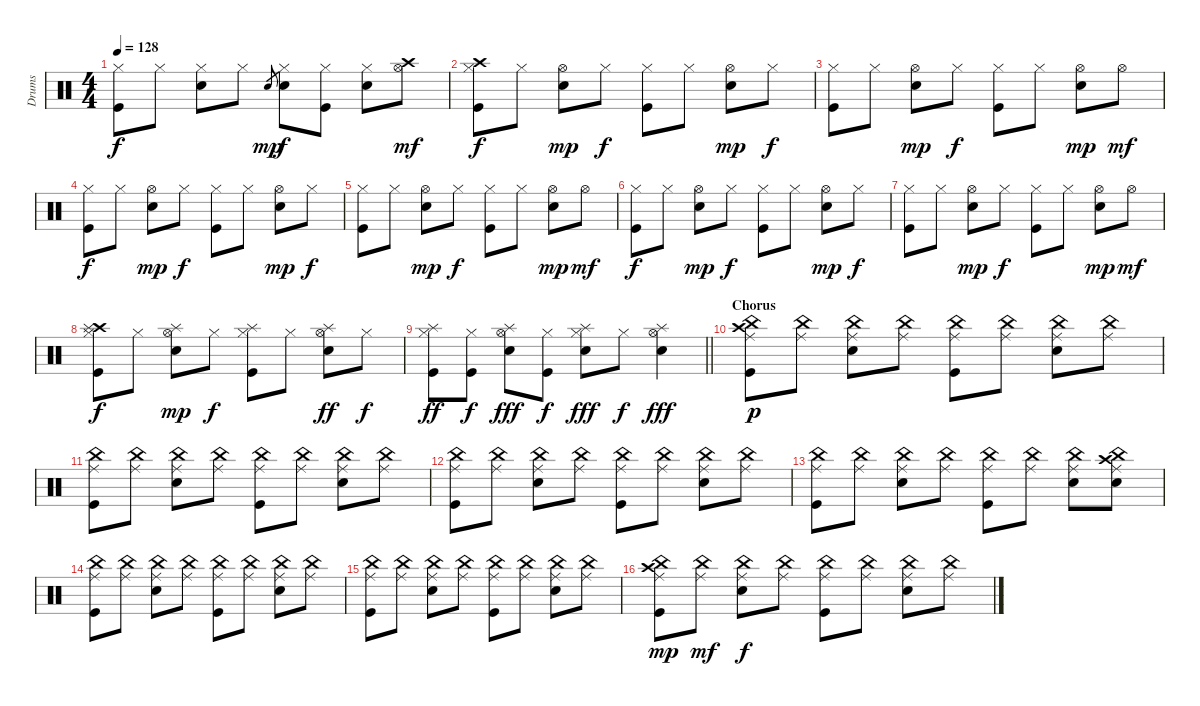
\track ("Drums" "Drums") {instrument percussion}
\staff {score}
\articulation defaults
\ts (4 4)
\tempo 128
\clef neutral
\ks c
("Hi-Hat (closed)" "Kick (hit)").8{dy f} "Hi-Hat (closed)".8 ("Hi-Hat (closed)" "Snare (hit) 2").8 "Hi-Hat (closed)".8 "Electric Snare (hit)".8{gr dy mp} ("Hi-Hat (closed)" "Snare (hit) 2").8{dy f} ("Hi-Hat (closed)" "Kick (hit)").8 ("Hi-Hat (closed)" "Snare (hit) 2").8 ("Crash high (hit)" "Hi-Hat (open)").8{dy mf} |
("Crash high (hit)" "Hi-Hat (closed)" "Kick (hit)").8{dy f} "Hi-Hat (closed)".8 ("Hi-Hat (open)" "Snare (hit) 2").8{dy mp} "Hi-Hat (closed)".8{dy f} ("Hi-Hat (closed)" "Kick (hit)").8 "Hi-Hat (closed)".8 ("Hi-Hat (open)" "Snare (hit) 2").8{dy mp} "Hi-Hat (closed)".8{dy f} |
("Hi-Hat (closed)" "Kick (hit)").8 "Hi-Hat (closed)".8 ("Hi-Hat (open)" "Snare (hit) 2").8{dy mp} "Hi-Hat (closed)".8{dy f} ("Hi-Hat (closed)" "Kick (hit)").8 "Hi-Hat (closed)".8 ("Hi-Hat (open)" "Snare (hit) 2").8{dy mp} "Hi-Hat (open)".8{dy mf} |
("Hi-Hat (closed)" "Kick (hit)").8{dy f} "Hi-Hat (closed)".8 ("Hi-Hat (open)" "Snare (hit) 2").8{dy mp} "Hi-Hat (closed)".8{dy f} ("Hi-Hat (closed)" "Kick (hit)").8 "Hi-Hat (closed)".8 ("Hi-Hat (open)" "Snare (hit) 2").8{dy mp} "Hi-Hat (closed)".8{dy f} |
("Hi-Hat (closed)" "Kick (hit)").8 "Hi-Hat (closed)".8 ("Hi-Hat (open)" "Snare (hit) 2").8{dy mp} "Hi-Hat (closed)".8{dy f} ("Hi-Hat (closed)" "Kick (hit)").8 "Hi-Hat (closed)".8 ("Hi-Hat (open)" "Snare (hit) 2").8{dy mp} "Hi-Hat (open)".8{dy mf} |
("Hi-Hat (closed)" "Kick (hit)").8{dy f} "Hi-Hat (closed)".8 ("Hi-Hat (open)" "Snare (hit) 2").8{dy mp} "Hi-Hat (closed)".8{dy f} ("Hi-Hat (closed)" "Kick (hit)").8 "Hi-Hat (closed)".8 ("Hi-Hat (open)" "Snare (hit) 2").8{dy mp} "Hi-Hat (closed)".8{dy f} |
("Hi-Hat (closed)" "Kick (hit)").8 "Hi-Hat (closed)".8 ("Hi-Hat (open)" "Snare (hit) 2").8{dy mp} "Hi-Hat (closed)".8{dy f} ("Hi-Hat (closed)" "Kick (hit)").8 "Hi-Hat (closed)".8 ("Hi-Hat (open)" "Snare (hit) 2").8{dy mp} "Hi-Hat (open)".8{dy mf} |
("Crash high (hit)" "Hi-Hat (closed)" "Splash (hit)" "Kick (hit)").8{dy f} "Hi-Hat (closed)".8 ("Hi-Hat (open)" "Splash (hit)" "Snare (hit) 2").8{dy mp} "Hi-Hat (closed)".8{dy f} ("Hi-Hat (closed)" "Splash (hit)" "Kick (hit)").8 "Hi-Hat (closed)".8 ("Hi-Hat (open)" "Splash (hit)" "Snare (hit) 2").8{dy ff} "Hi-Hat (closed)".8{dy f} |
\barLineRight lightlight
("Hi-Hat (closed)" "Splash (hit)" "Kick (hit)").8{dy ff} ("Hi-Hat (closed)" "Kick (hit)").8{dy f} ("Hi-Hat (open)" "Splash (hit)" "Snare (hit) 2").8{dy fff} ("Hi-Hat (closed)" "Kick (hit)").8{dy f} ("Hi-Hat (closed)" "Splash (hit)" "Snare (hit) 2").8{dy fff} "Hi-Hat (closed)".8{dy f} ("Hi-Hat (open)" "Splash (hit)" "Snare (hit) 2").4{dy fff} |
\section ("" "Chorus")
("Crash high (hit)" "Ride (middle)" "China (hit)" "Kick (hit)").8{dy p} ("Ride (middle)" "China (hit)").8 ("Ride (middle)" "China (hit)" "Snare (hit) 2").8 ("Ride (middle)" "China (hit)").8 ("Ride (middle)" "China (hit)" "Kick (hit)").8 ("Ride (middle)" "China (hit)").8 ("Ride (middle)" "China (hit)" "Electric Snare (hit)").8 ("Ride (middle)" "China (hit)").8 |
("Ride (middle)" "China (hit)" "Kick (hit)").8 ("Ride (middle)" "China (hit)").8 ("Ride (middle)" "China (hit)" "Electric Snare (hit)").8 ("Ride (middle)" "China (hit)").8 ("Ride (middle)" "China (hit)" "Kick (hit)").8 ("Ride (middle)" "China (hit)").8 ("Ride (middle)" "China (hit)" "Electric Snare (hit)").8 ("Ride (middle)" "China (hit)").8 |
("Ride (middle)" "China (hit)" "Kick (hit)").8 ("Ride (middle)" "China (hit)").8 ("Ride (middle)" "China (hit)" "Electric Snare (hit)").8 ("Ride (middle)" "China (hit)").8 ("Ride (middle)" "China (hit)" "Kick (hit)").8 ("Ride (middle)" "China (hit)").8 ("Ride (middle)" "China (hit)" "Electric Snare (hit)").8 ("Ride (middle)" "China (hit)").8 |
("Ride (middle)" "China (hit)" "Kick (hit)").8 ("Ride (middle)" "China (hit)").8 ("Ride (middle)" "China (hit)" "Electric Snare (hit)").8 ("Ride (middle)" "China (hit)").8 ("Ride (middle)" "China (hit)" "Kick (hit)").8 ("Ride (middle)" "China (hit)").8 ("Ride (middle)" "China (hit)" "Electric Snare (hit)").8 ("Crash high (hit)" "Ride (middle)" "China (hit)" "Electric Snare (hit)").8 |
("Ride (middle)" "China (hit)" "Kick (hit)").8 ("Ride (middle)" "China (hit)").8 ("Ride (middle)" "China (hit)" "Electric Snare (hit)").8 ("Ride (middle)" "China (hit)").8 ("Ride (middle)" "China (hit)" "Kick (hit)").8 ("Ride (middle)" "China (hit)").8 ("Ride (middle)" "China (hit)" "Electric Snare (hit)").8 ("Ride (middle)" "China (hit)").8 |
("Ride (middle)" "China (hit)" "Kick (hit)").8 ("Ride (middle)" "China (hit)").8 ("Ride (middle)" "China (hit)" "Electric Snare (hit)").8 ("Ride (middle)" "China (hit)").8 ("Ride (middle)" "China (hit)" "Kick (hit)").8 ("Ride (middle)" "China (hit)").8 ("Ride (middle)" "China (hit)" "Electric Snare (hit)").8 ("Ride (middle)" "China (hit)").8 |
("Crash high (hit)" "Ride (middle)" "China (hit)" "Kick (hit)").8{dy mp} ("Ride (middle)" "China (hit)").8{dy mf} ("Ride (middle)" "China (hit)" "Electric Snare (hit)").8{dy f} ("Ride (middle)" "China (hit)").8 ("Ride (middle)" "China (hit)" "Kick (hit)").8 ("Ride (middle)" "China (hit)").8 ("Ride (middle)" "China (hit)" "Electric Snare (hit)").8 ("Ride (middle)" "China (hit)").8
